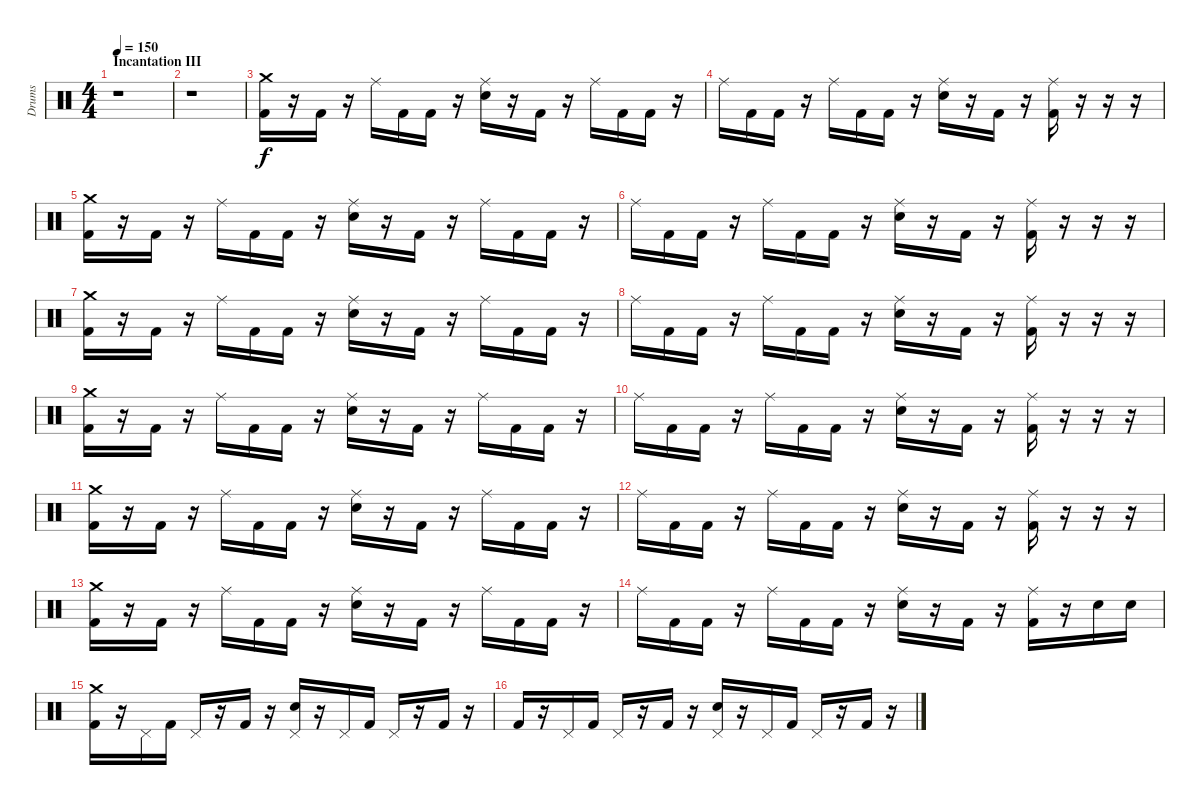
\track ("Drums" "Drums") {instrument percussion}
\staff {score}
\articulation defaults
\ts (4 4)
\section ("" "Incantation III")
\tempo 150
\clef neutral
\ks c
r.1{dy f} |
r.1 |
("Crash medium (hit)" "Kick (hit) 2").16 r.16 "Kick (hit) 2".16 r.16 "Ride (middle)".16 "Kick (hit) 2".16 "Kick (hit) 2".16 r.16 ("Ride (middle)" "Electric Snare (hit)").16 r.16 "Kick (hit) 2".16 r.16 "Ride (middle)".16 "Kick (hit) 2".16 "Kick (hit) 2".16 r.16 |
"Ride (middle)".16 "Kick (hit) 2".16 "Kick (hit) 2".16 r.16 "Ride (middle)".16 "Kick (hit) 2".16 "Kick (hit) 2".16 r.16 ("Ride (middle)" "Electric Snare (hit)").16 r.16 "Kick (hit) 2".16 r.16 ("Ride (middle)" "Kick (hit) 2").16 r.16 r.16 r.16 |
("Crash medium (hit)" "Kick (hit) 2").16 r.16 "Kick (hit) 2".16 r.16 "Ride (middle)".16 "Kick (hit) 2".16 "Kick (hit) 2".16 r.16 ("Ride (middle)" "Electric Snare (hit)").16 r.16 "Kick (hit) 2".16 r.16 "Ride (middle)".16 "Kick (hit) 2".16 "Kick (hit) 2".16 r.16 |
"Ride (middle)".16 "Kick (hit) 2".16 "Kick (hit) 2".16 r.16 "Ride (middle)".16 "Kick (hit) 2".16 "Kick (hit) 2".16 r.16 ("Ride (middle)" "Electric Snare (hit)").16 r.16 "Kick (hit) 2".16 r.16 ("Ride (middle)" "Kick (hit) 2").16 r.16 r.16 r.16 |
("Crash medium (hit)" "Kick (hit) 2").16 r.16 "Kick (hit) 2".16 r.16 "Ride (middle)".16 "Kick (hit) 2".16 "Kick (hit) 2".16 r.16 ("Ride (middle)" "Electric Snare (hit)").16 r.16 "Kick (hit) 2".16 r.16 "Ride (middle)".16 "Kick (hit) 2".16 "Kick (hit) 2".16 r.16 |
"Ride (middle)".16 "Kick (hit) 2".16 "Kick (hit) 2".16 r.16 "Ride (middle)".16 "Kick (hit) 2".16 "Kick (hit) 2".16 r.16 ("Ride (middle)" "Electric Snare (hit)").16 r.16 "Kick (hit) 2".16 r.16 ("Ride (middle)" "Kick (hit) 2").16 r.16 r.16 r.16 |
("Crash medium (hit)" "Kick (hit) 2").16 r.16 "Kick (hit) 2".16 r.16 "Ride (middle)".16 "Kick (hit) 2".16 "Kick (hit) 2".16 r.16 ("Ride (middle)" "Electric Snare (hit)").16 r.16 "Kick (hit) 2".16 r.16 "Ride (middle)".16 "Kick (hit) 2".16 "Kick (hit) 2".16 r.16 |
"Ride (middle)".16 "Kick (hit) 2".16 "Kick (hit) 2".16 r.16 "Ride (middle)".16 "Kick (hit) 2".16 "Kick (hit) 2".16 r.16 ("Ride (middle)" "Electric Snare (hit)").16 r.16 "Kick (hit) 2".16 r.16 ("Ride (middle)" "Kick (hit) 2").16 r.16 r.16 r.16 |
("Crash medium (hit)" "Kick (hit) 2").16 r.16 "Kick (hit) 2".16 r.16 "Ride (middle)".16 "Kick (hit) 2".16 "Kick (hit) 2".16 r.16 ("Ride (middle)" "Electric Snare (hit)").16 r.16 "Kick (hit) 2".16 r.16 "Ride (middle)".16 "Kick (hit) 2".16 "Kick (hit) 2".16 r.16 |
"Ride (middle)".16 "Kick (hit) 2".16 "Kick (hit) 2".16 r.16 "Ride (middle)".16 "Kick (hit) 2".16 "Kick (hit) 2".16 r.16 ("Ride (middle)" "Electric Snare (hit)").16 r.16 "Kick (hit) 2".16 r.16 ("Ride (middle)" "Kick (hit) 2").16 r.16 r.16 r.16 |
("Crash medium (hit)" "Kick (hit) 2").16 r.16 "Kick (hit) 2".16 r.16 "Ride (middle)".16 "Kick (hit) 2".16 "Kick (hit) 2".16 r.16 ("Ride (middle)" "Electric Snare (hit)").16 r.16 "Kick (hit) 2".16 r.16 "Ride (middle)".16 "Kick (hit) 2".16 "Kick (hit) 2".16 r.16 |
"Ride (middle)".16 "Kick (hit) 2".16 "Kick (hit) 2".16 r.16 "Ride (middle)".16 "Kick (hit) 2".16 "Kick (hit) 2".16 r.16 ("Ride (middle)" "Electric Snare (hit)").16 r.16 "Kick (hit) 2".16 r.16 ("Ride (middle)" "Kick (hit) 2").16 r.16 "Electric Snare (hit)".16 "Electric Snare (hit)".16 |
\section ("" "")
("Crash medium (hit)" "Kick (hit) 2").16 r.16 "Pedal Hi-Hat (hit)".16 "Kick (hit) 2".16 "Pedal Hi-Hat (hit)".16 r.16 "Kick (hit) 2".16 r.16 ("Pedal Hi-Hat (hit)" "Electric Snare (hit)").16 r.16 "Pedal Hi-Hat (hit)".16 "Kick (hit) 2".16 "Pedal Hi-Hat (hit)".16 r.16 "Kick (hit) 2".16 r.16 |
"Kick (hit) 2".16 r.16 "Pedal Hi-Hat (hit)".16 "Kick (hit) 2".16 "Pedal Hi-Hat (hit)".16 r.16 "Kick (hit) 2".16 r.16 ("Pedal Hi-Hat (hit)" "Electric Snare (hit)").16 r.16 "Pedal Hi-Hat (hit)".16 "Kick (hit) 2".16 "Pedal Hi-Hat (hit)".16 r.16 "Kick (hit) 2".16 r.16
